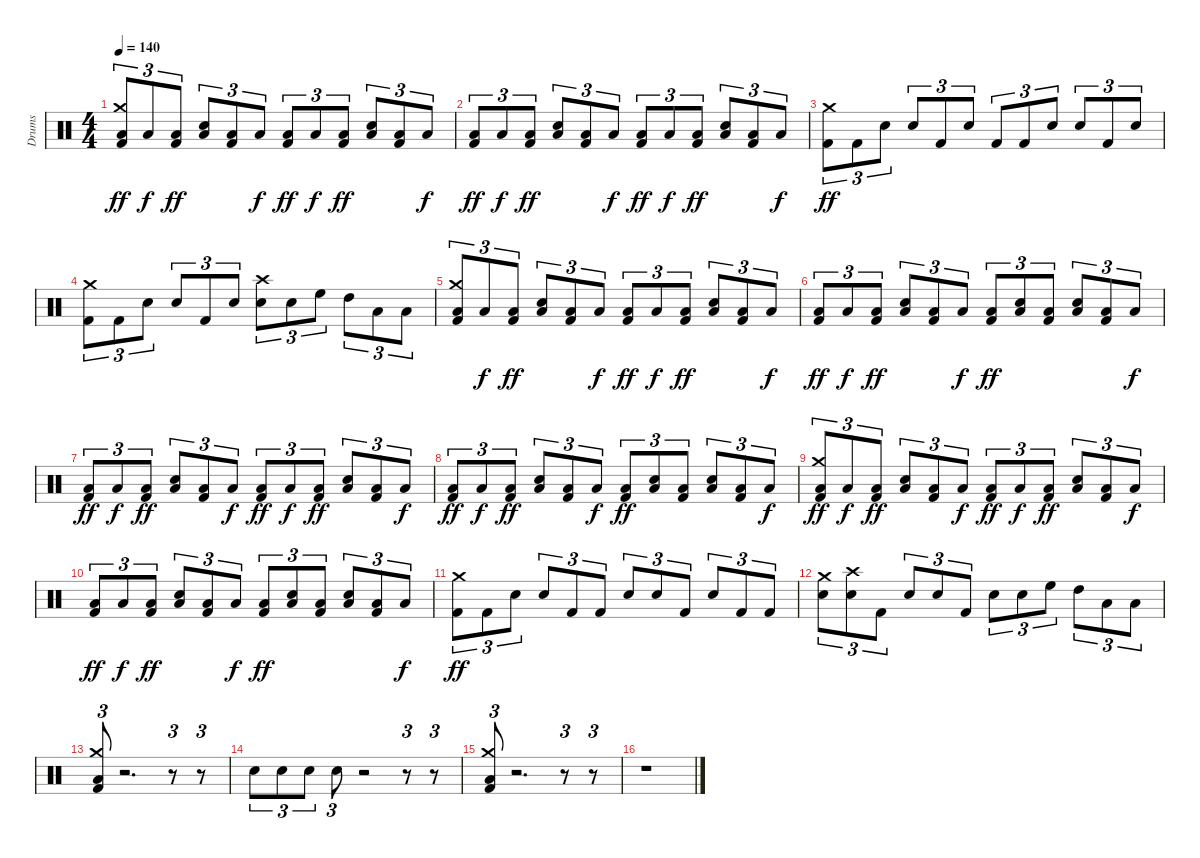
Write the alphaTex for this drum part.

\track ("Drums" "Drums") {instrument percussion}
\staff {score}
\articulation defaults
\ts (4 4)
\tempo 140
\clef neutral
\ks c
("Kick (hit) 2" "Crash medium (hit)" "Low Floor Tom (hit)").8{tu (3 2) dy ff} "Low Floor Tom (hit)".8{tu (3 2) dy f} ("Kick (hit) 2" "Low Floor Tom (hit)").8{tu (3 2) dy ff} ("Snare (hit) 2" "Low Floor Tom (hit)").8{tu (3 2)} ("Kick (hit) 2" "Low Floor Tom (hit)").8{tu (3 2)} "Low Floor Tom (hit)".8{tu (3 2) dy f} ("Kick (hit) 2" "Low Floor Tom (hit)").8{tu (3 2) dy ff} "Low Floor Tom (hit)".8{tu (3 2) dy f} ("Kick (hit) 2" "Low Floor Tom (hit)").8{tu (3 2) dy ff} ("Snare (hit) 2" "Low Floor Tom (hit)").8{tu (3 2)} ("Kick (hit) 2" "Low Floor Tom (hit)").8{tu (3 2)} "Low Floor Tom (hit)".8{tu (3 2) dy f} |
("Kick (hit) 2" "Low Floor Tom (hit)").8{tu (3 2) dy ff} "Low Floor Tom (hit)".8{tu (3 2) dy f} ("Kick (hit) 2" "Low Floor Tom (hit)").8{tu (3 2) dy ff} ("Snare (hit) 2" "Low Floor Tom (hit)").8{tu (3 2)} ("Kick (hit) 2" "Low Floor Tom (hit)").8{tu (3 2)} "Low Floor Tom (hit)".8{tu (3 2) dy f} ("Kick (hit) 2" "Low Floor Tom (hit)").8{tu (3 2) dy ff} "Low Floor Tom (hit)".8{tu (3 2) dy f} ("Kick (hit) 2" "Low Floor Tom (hit)").8{tu (3 2) dy ff} ("Snare (hit) 2" "Low Floor Tom (hit)").8{tu (3 2)} ("Kick (hit) 2" "Low Floor Tom (hit)").8{tu (3 2)} "Low Floor Tom (hit)".8{tu (3 2) dy f} |
("Kick (hit) 2" "Crash medium (hit)").8{tu (3 2) dy ff} "Kick (hit) 2".8{tu (3 2)} "Snare (hit) 2".8{tu (3 2)} "Snare (hit) 2".8{tu (3 2)} "Kick (hit) 2".8{tu (3 2)} "Snare (hit) 2".8{tu (3 2)} "Kick (hit) 2".8{tu (3 2)} "Kick (hit) 2".8{tu (3 2)} "Snare (hit) 2".8{tu (3 2)} "Snare (hit) 2".8{tu (3 2)} "Kick (hit) 2".8{tu (3 2)} "Snare (hit) 2".8{tu (3 2)} |
("Kick (hit) 2" "Crash medium (hit)").8{tu (3 2)} "Kick (hit) 2".8{tu (3 2)} "Snare (hit) 2".8{tu (3 2)} "Snare (hit) 2".8{tu (3 2)} "Kick (hit) 2".8{tu (3 2)} "Snare (hit) 2".8{tu (3 2)} ("Snare (hit) 2" "Crash high (hit)").8{tu (3 2)} "Snare (hit) 2".8{tu (3 2)} "High Floor Tom (hit)".8{tu (3 2)} "High Tom (hit)".8{tu (3 2)} "Low Tom (hit)".8{tu (3 2)} "Low Floor Tom (hit)".8{tu (3 2)} |
("Kick (hit) 2" "Crash medium (hit)" "Low Floor Tom (hit)").8{tu (3 2)} "Low Floor Tom (hit)".8{tu (3 2) dy f} ("Kick (hit) 2" "Low Floor Tom (hit)").8{tu (3 2) dy ff} ("Snare (hit) 2" "Low Floor Tom (hit)").8{tu (3 2)} ("Kick (hit) 2" "Low Floor Tom (hit)").8{tu (3 2)} "Low Floor Tom (hit)".8{tu (3 2) dy f} ("Kick (hit) 2" "Low Floor Tom (hit)").8{tu (3 2) dy ff} "Low Floor Tom (hit)".8{tu (3 2) dy f} ("Kick (hit) 2" "Low Floor Tom (hit)").8{tu (3 2) dy ff} ("Snare (hit) 2" "Low Floor Tom (hit)").8{tu (3 2)} ("Kick (hit) 2" "Low Floor Tom (hit)").8{tu (3 2)} "Low Floor Tom (hit)".8{tu (3 2) dy f} |
("Kick (hit) 2" "Low Floor Tom (hit)").8{tu (3 2) dy ff} "Low Floor Tom (hit)".8{tu (3 2) dy f} ("Kick (hit) 2" "Low Floor Tom (hit)").8{tu (3 2) dy ff} ("Snare (hit) 2" "Low Floor Tom (hit)").8{tu (3 2)} ("Kick (hit) 2" "Low Floor Tom (hit)").8{tu (3 2)} "Low Floor Tom (hit)".8{tu (3 2) dy f} ("Kick (hit) 2" "Low Floor Tom (hit)").8{tu (3 2) dy ff} ("Snare (hit) 2" "Low Floor Tom (hit)").8{tu (3 2)} ("Kick (hit) 2" "Low Floor Tom (hit)").8{tu (3 2)} ("Snare (hit) 2" "Low Floor Tom (hit)").8{tu (3 2)} ("Kick (hit) 2" "Low Floor Tom (hit)").8{tu (3 2)} "Low Floor Tom (hit)".8{tu (3 2) dy f} |
("Kick (hit) 2" "Low Floor Tom (hit)").8{tu (3 2) dy ff} "Low Floor Tom (hit)".8{tu (3 2) dy f} ("Kick (hit) 2" "Low Floor Tom (hit)").8{tu (3 2) dy ff} ("Snare (hit) 2" "Low Floor Tom (hit)").8{tu (3 2)} ("Kick (hit) 2" "Low Floor Tom (hit)").8{tu (3 2)} "Low Floor Tom (hit)".8{tu (3 2) dy f} ("Kick (hit) 2" "Low Floor Tom (hit)").8{tu (3 2) dy ff} "Low Floor Tom (hit)".8{tu (3 2) dy f} ("Kick (hit) 2" "Low Floor Tom (hit)").8{tu (3 2) dy ff} ("Snare (hit) 2" "Low Floor Tom (hit)").8{tu (3 2)} ("Kick (hit) 2" "Low Floor Tom (hit)").8{tu (3 2)} "Low Floor Tom (hit)".8{tu (3 2) dy f} |
("Kick (hit) 2" "Low Floor Tom (hit)").8{tu (3 2) dy ff} "Low Floor Tom (hit)".8{tu (3 2) dy f} ("Kick (hit) 2" "Low Floor Tom (hit)").8{tu (3 2) dy ff} ("Snare (hit) 2" "Low Floor Tom (hit)").8{tu (3 2)} ("Kick (hit) 2" "Low Floor Tom (hit)").8{tu (3 2)} "Low Floor Tom (hit)".8{tu (3 2) dy f} ("Kick (hit) 2" "Low Floor Tom (hit)").8{tu (3 2) dy ff} ("Snare (hit) 2" "Low Floor Tom (hit)").8{tu (3 2)} ("Kick (hit) 2" "Low Floor Tom (hit)").8{tu (3 2)} ("Snare (hit) 2" "Low Floor Tom (hit)").8{tu (3 2)} ("Kick (hit) 2" "Low Floor Tom (hit)").8{tu (3 2)} "Low Floor Tom (hit)".8{tu (3 2) dy f} |
("Kick (hit) 2" "Crash medium (hit)" "Low Floor Tom (hit)").8{tu (3 2) dy ff} "Low Floor Tom (hit)".8{tu (3 2) dy f} ("Kick (hit) 2" "Low Floor Tom (hit)").8{tu (3 2) dy ff} ("Snare (hit) 2" "Low Floor Tom (hit)").8{tu (3 2)} ("Kick (hit) 2" "Low Floor Tom (hit)").8{tu (3 2)} "Low Floor Tom (hit)".8{tu (3 2) dy f} ("Kick (hit) 2" "Low Floor Tom (hit)").8{tu (3 2) dy ff} "Low Floor Tom (hit)".8{tu (3 2) dy f} ("Kick (hit) 2" "Low Floor Tom (hit)").8{tu (3 2) dy ff} ("Snare (hit) 2" "Low Floor Tom (hit)").8{tu (3 2)} ("Kick (hit) 2" "Low Floor Tom (hit)").8{tu (3 2)} "Low Floor Tom (hit)".8{tu (3 2) dy f} |
("Kick (hit) 2" "Low Floor Tom (hit)").8{tu (3 2) dy ff} "Low Floor Tom (hit)".8{tu (3 2) dy f} ("Kick (hit) 2" "Low Floor Tom (hit)").8{tu (3 2) dy ff} ("Snare (hit) 2" "Low Floor Tom (hit)").8{tu (3 2)} ("Kick (hit) 2" "Low Floor Tom (hit)").8{tu (3 2)} "Low Floor Tom (hit)".8{tu (3 2) dy f} ("Kick (hit) 2" "Low Floor Tom (hit)").8{tu (3 2) dy ff} ("Snare (hit) 2" "Low Floor Tom (hit)").8{tu (3 2)} ("Kick (hit) 2" "Low Floor Tom (hit)").8{tu (3 2)} ("Snare (hit) 2" "Low Floor Tom (hit)").8{tu (3 2)} ("Kick (hit) 2" "Low Floor Tom (hit)").8{tu (3 2)} "Low Floor Tom (hit)".8{tu (3 2) dy f} |
("Kick (hit) 2" "Crash medium (hit)").8{tu (3 2) dy ff} "Kick (hit) 2".8{tu (3 2)} "Snare (hit) 2".8{tu (3 2)} "Snare (hit) 2".8{tu (3 2)} "Kick (hit) 2".8{tu (3 2)} "Kick (hit) 2".8{tu (3 2)} "Snare (hit) 2".8{tu (3 2)} "Snare (hit) 2".8{tu (3 2)} "Kick (hit) 2".8{tu (3 2)} "Snare (hit) 2".8{tu (3 2)} "Kick (hit) 2".8{tu (3 2)} "Kick (hit) 2".8{tu (3 2)} |
("Snare (hit) 2" "Crash medium (hit)").8{tu (3 2)} ("Snare (hit) 2" "Crash high (hit)").8{tu (3 2)} "Kick (hit) 2".8{tu (3 2)} "Snare (hit) 2".8{tu (3 2)} "Snare (hit) 2".8{tu (3 2)} "Kick (hit) 2".8{tu (3 2)} "Snare (hit) 2".8{tu (3 2)} "Snare (hit) 2".8{tu (3 2)} "High Floor Tom (hit)".8{tu (3 2)} "High Tom (hit)".8{tu (3 2)} "Low Tom (hit)".8{tu (3 2)} "Low Floor Tom (hit)".8{tu (3 2)} |
("Kick (hit) 2" "Low Floor Tom (hit)" "Crash medium (hit)").8{tu (3 2)} r.2{d} r.8{tu (3 2)} r.8{tu (3 2)} |
"Snare (hit) 2".8{tu (3 2)} "Snare (hit) 2".8{tu (3 2)} "Snare (hit) 2".8{tu (3 2)} "Snare (hit) 2".8{tu (3 2)} r.2 r.8{tu (3 2)} r.8{tu (3 2)} |
("Kick (hit) 2" "Low Floor Tom (hit)" "Crash medium (hit)").8{tu (3 2)} r.2{d} r.8{tu (3 2)} r.8{tu (3 2)} |
r.1
